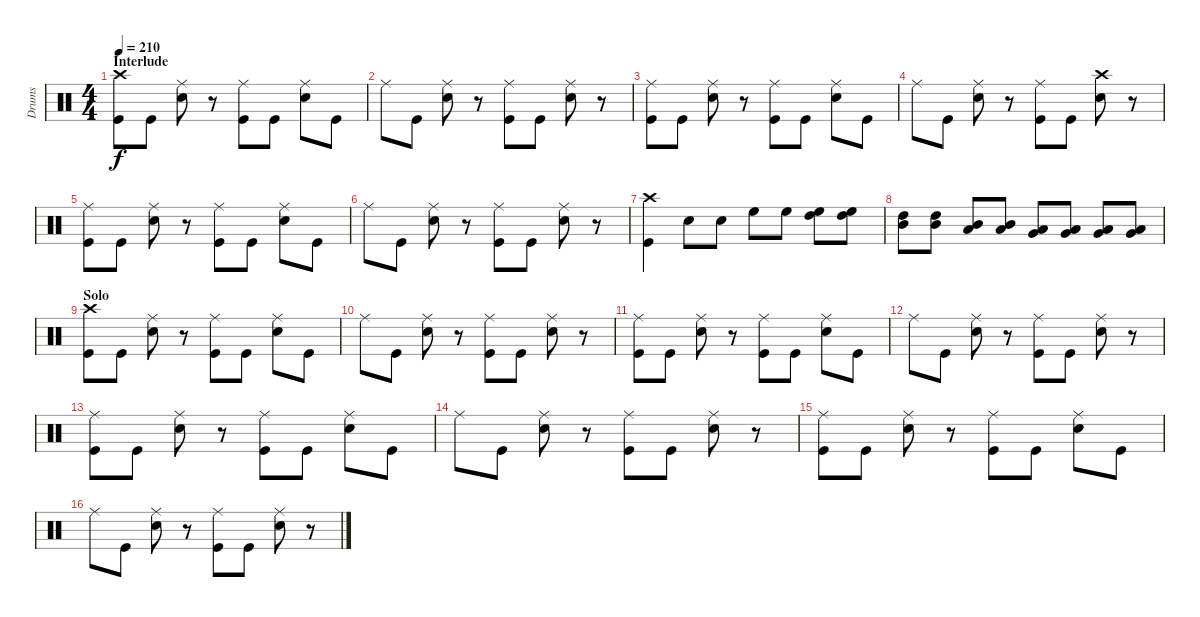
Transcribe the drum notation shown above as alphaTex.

\track ("Drums" "Drums") {instrument percussion}
\staff {score}
\articulation defaults
\ts (4 4)
\section ("" "Interlude")
\tempo 210
\clef neutral
\ks c
("Crash high (hit)" "Kick (hit)").8{dy f} "Kick (hit)".8 ("Ride (middle)" "Snare (hit) 2").8 r.8 ("Ride (middle)" "Kick (hit)").8 "Kick (hit)".8 ("Ride (middle)" "Snare (hit) 2").8 "Kick (hit)".8 |
"Ride (middle)".8 "Kick (hit)".8 ("Ride (middle)" "Snare (hit) 2").8 r.8 ("Ride (middle)" "Kick (hit)").8 "Kick (hit)".8 ("Ride (middle)" "Snare (hit) 2").8 r.8 |
("Ride (middle)" "Kick (hit)").8 "Kick (hit)".8 ("Ride (middle)" "Snare (hit) 2").8 r.8 ("Ride (middle)" "Kick (hit)").8 "Kick (hit)".8 ("Ride (middle)" "Snare (hit) 2").8 "Kick (hit)".8 |
"Ride (middle)".8 "Kick (hit)".8 ("Ride (middle)" "Snare (hit) 2").8 r.8 ("Ride (middle)" "Kick (hit)").8 "Kick (hit)".8 ("Crash high (hit)" "Snare (hit) 2").8 r.8 |
("Ride (middle)" "Kick (hit)").8 "Kick (hit)".8 ("Ride (middle)" "Snare (hit) 2").8 r.8 ("Ride (middle)" "Kick (hit)").8 "Kick (hit)".8 ("Ride (middle)" "Snare (hit) 2").8 "Kick (hit)".8 |
"Ride (middle)".8 "Kick (hit)".8 ("Ride (middle)" "Snare (hit) 2").8 r.8 ("Ride (middle)" "Kick (hit)").8 "Kick (hit)".8 ("Ride (middle)" "Snare (hit) 2").8 r.8 |
("Crash high (hit)" "Kick (hit)").4 "Snare (hit) 2".8 "Snare (hit) 2".8 "High Floor Tom (hit)".8 "High Floor Tom (hit)".8 ("High Floor Tom (hit)" "High Tom (hit)").8 ("High Floor Tom (hit)" "High Tom (hit)").8 |
("High Tom (hit)" "Mid Tom (hit)").8 ("High Tom (hit)" "Mid Tom (hit)").8 ("Mid Tom (hit)" "Low Tom (hit)").8 ("Mid Tom (hit)" "Low Tom (hit)").8 ("Low Tom (hit)" "Very Low Tom (hit)").8 ("Low Tom (hit)" "Very Low Tom (hit)").8 ("Very Low Tom (hit)" "Low Floor Tom (hit)").8 ("Very Low Tom (hit)" "Low Floor Tom (hit)").8 |
\section ("" "Solo")
("Crash high (hit)" "Kick (hit)").8 "Kick (hit)".8 ("Ride (middle)" "Snare (hit) 2").8 r.8 ("Ride (middle)" "Kick (hit)").8 "Kick (hit)".8 ("Ride (middle)" "Snare (hit) 2").8 "Kick (hit)".8 |
"Ride (middle)".8 "Kick (hit)".8 ("Ride (middle)" "Snare (hit) 2").8 r.8 ("Ride (middle)" "Kick (hit)").8 "Kick (hit)".8 ("Ride (middle)" "Snare (hit) 2").8 r.8 |
("Ride (middle)" "Kick (hit)").8 "Kick (hit)".8 ("Ride (middle)" "Snare (hit) 2").8 r.8 ("Ride (middle)" "Kick (hit)").8 "Kick (hit)".8 ("Ride (middle)" "Snare (hit) 2").8 "Kick (hit)".8 |
"Ride (middle)".8 "Kick (hit)".8 ("Ride (middle)" "Snare (hit) 2").8 r.8 ("Ride (middle)" "Kick (hit)").8 "Kick (hit)".8 ("Ride (middle)" "Snare (hit) 2").8 r.8 |
("Ride (middle)" "Kick (hit)").8 "Kick (hit)".8 ("Ride (middle)" "Snare (hit) 2").8 r.8 ("Ride (middle)" "Kick (hit)").8 "Kick (hit)".8 ("Ride (middle)" "Snare (hit) 2").8 "Kick (hit)".8 |
"Ride (middle)".8 "Kick (hit)".8 ("Ride (middle)" "Snare (hit) 2").8 r.8 ("Ride (middle)" "Kick (hit)").8 "Kick (hit)".8 ("Ride (middle)" "Snare (hit) 2").8 r.8 |
("Ride (middle)" "Kick (hit)").8 "Kick (hit)".8 ("Ride (middle)" "Snare (hit) 2").8 r.8 ("Ride (middle)" "Kick (hit)").8 "Kick (hit)".8 ("Ride (middle)" "Snare (hit) 2").8 "Kick (hit)".8 |
"Ride (middle)".8 "Kick (hit)".8 ("Ride (middle)" "Snare (hit) 2").8 r.8 ("Ride (middle)" "Kick (hit)").8 "Kick (hit)".8 ("Ride (middle)" "Snare (hit) 2").8 r.8
